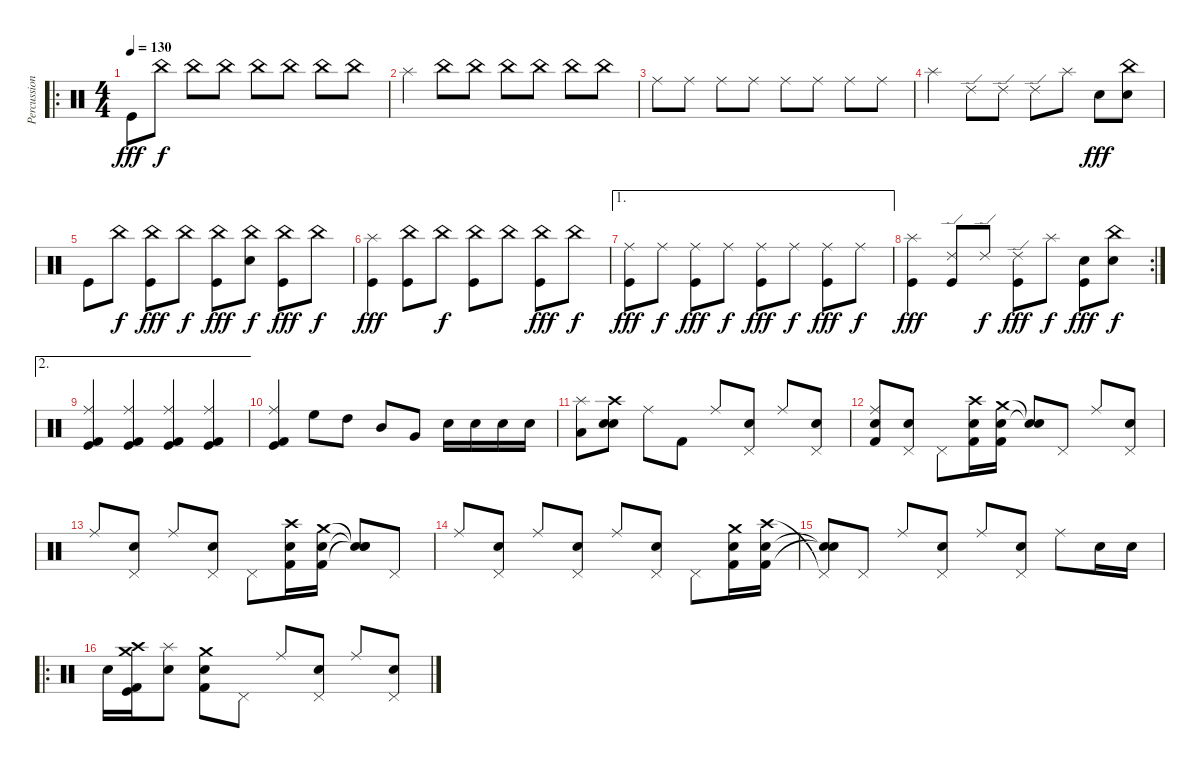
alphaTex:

\track ("Percussion" "Percussion") {instrument percussion}
\staff {score}
\articulation defaults
\ro
\ts (4 4)
\tempo 130
\clef neutral
\ks c "Kick (hit)".8{dy fff volume 9} "China (hit)".8{dy f} "China (hit)".8 "China (hit)".8 "China (hit)".8 "China (hit)".8 "China (hit)".8 "China (hit)".8
|
"Splash (hit)".4 "China (hit)".8 "China (hit)".8 "China (hit)".8 "China (hit)".8 "China (hit)".8 "China (hit)".8 |
"Ride (middle)".8 "Ride (middle)".8 "Ride (middle)".8 "Ride (middle)".8 "Ride (middle)".8 "Ride (middle)".8 "Ride (middle)".8 "Ride (middle)".8 |
"Splash (hit)".4 "Ride (edge) 2".8 "Ride (edge) 2".8 "Ride (edge) 2".8 "Splash (hit)".8 "Snare (hit) 2".8{dy fff} ("China (hit)" "Electric Snare (hit)").8 |
"Kick (hit)".8 "China (hit)".8{dy f} ("Kick (hit)" "China (hit)").8{dy fff} "China (hit)".8{dy f} ("Kick (hit)" "China (hit)").8{dy fff} ("Snare (hit)" "China (hit)").8{dy f} ("Kick (hit)" "China (hit)").8{dy fff} "China (hit)".8{dy f} |
("Kick (hit)" "Splash (hit)").4{dy fff} ("Kick (hit)" "China (hit)").8 "China (hit)".8{dy f} ("Kick (hit)" "China (hit)").8 "China (hit)".8 ("Kick (hit)" "China (hit)").8{dy fff} "China (hit)".8{dy f} |
\ae 1
("Kick (hit)" "Ride (middle)").8{dy fff} "Ride (middle)".8{dy f} ("Kick (hit)" "Ride (middle)").8{dy fff} "Ride (middle)".8{dy f} ("Kick (hit)" "Ride (middle)").8{dy fff} "Ride (middle)".8{dy f} ("Kick (hit)" "Ride (middle)").8{dy fff} "Ride (middle)".8{dy f} |
\rc 2
("Kick (hit)" "Splash (hit)").4{dy fff} ("Kick (hit)" "Ride (edge) 2").8 "Ride (edge) 2".8{dy f} ("Kick (hit)" "Ride (edge) 2").8{dy fff} "Splash (hit)".8{dy f} ("Kick (hit)" "Snare (hit) 2").8{dy fff} ("China (hit)" "Electric Snare (hit)").8{dy f} |
\ae 2
("Ride (middle)" "Kick (hit) 2" "Kick (hit)").4{volume 16} ("Ride (middle)" "Kick (hit) 2" "Kick (hit)").4 ("Ride (middle)" "Kick (hit) 2" "Kick (hit)").4 ("Ride (middle)" "Kick (hit) 2" "Kick (hit)").4 |
("Ride (middle)" "Kick (hit) 2" "Kick (hit)").4 "High Floor Tom (hit)".8 "High Tom (hit)".8 "Mid Tom (hit)".8 "Very Low Tom (hit)".8 "Electric Snare (hit)".16 "Electric Snare (hit)".16 "Electric Snare (hit)".16 "Snare (hit) 2".16 |
("Splash (hit)" "Low Tom (hit)").8 ("Electric Snare (hit)" "Crash high (hit)" "Electric Snare (hit)").8 "Ride (middle)".8 "Kick (hit) 2".8 "Ride (middle)".8 ("Pedal Hi-Hat (hit)" "Electric Snare (hit)").8 "Ride (middle)".8 ("Pedal Hi-Hat (hit)" "Electric Snare (hit)").8 |
("Ride (middle)" "Kick (hit) 2" "Snare (hit) 2").8 ("Pedal Hi-Hat (hit)" "Electric Snare (hit)").8 "Pedal Hi-Hat (hit)".8 ("Crash high (hit)" "Electric Snare (hit)" "Kick (hit) 2").16 ("Crash medium (hit)" "Electric Snare (hit)" "Kick (hit) 2").16 ("Snare (hit)"{t} "Snare (hit)"{t}).8 "Pedal Hi-Hat (hit)".8 "Ride (middle)".8 ("Pedal Hi-Hat (hit)" "Electric Snare (hit)").8 |
"Ride (middle)".8 ("Pedal Hi-Hat (hit)" "Electric Snare (hit)").8 "Ride (middle)".8 ("Pedal Hi-Hat (hit)" "Electric Snare (hit)").8 "Pedal Hi-Hat (hit)".8 ("Crash high (hit)" "Electric Snare (hit)" "Kick (hit) 2").16 ("Crash medium (hit)" "Electric Snare (hit)" "Kick (hit) 2").16 ("Snare (hit)"{t} "Snare (hit)"{t} "Snare (hit)"{t}).8 "Pedal Hi-Hat (hit)".8 |
"Ride (middle)".8 ("Pedal Hi-Hat (hit)" "Electric Snare (hit)").8 "Ride (middle)".8 ("Pedal Hi-Hat (hit)" "Electric Snare (hit)").8 "Ride (middle)".8 ("Pedal Hi-Hat (hit)" "Electric Snare (hit)").8 "Pedal Hi-Hat (hit)".8 ("Crash medium (hit)" "Electric Snare (hit)" "Kick (hit) 2").16 ("Crash high (hit)" "Electric Snare (hit)" "Kick (hit) 2").16 |
("Pedal Hi-Hat (hit)"{t} "Snare (hit)"{t} "Snare (hit)"{t}).8 "Pedal Hi-Hat (hit)".8 "Ride (middle)".8 ("Pedal Hi-Hat (hit)" "Electric Snare (hit)").8 "Ride (middle)".8 ("Pedal Hi-Hat (hit)" "Electric Snare (hit)").8 "Ride (middle)".8 "Electric Snare (hit)".16 "Electric Snare (hit)".16 |
\ro "Electric Snare (hit)".16
("Crash high (hit)" "Crash medium (hit)" "Kick (hit) 2" "Kick (hit)").16 ("Splash (hit)" "Snare (hit) 2").8 ("Crash medium (hit)" "Electric Snare (hit)" "Kick (hit) 2").8 "Pedal Hi-Hat (hit)".8 "Ride (middle)".8 ("Pedal Hi-Hat (hit)" "Electric Snare (hit)").8 "Ride (middle)".8 ("Pedal Hi-Hat (hit)" "Electric Snare (hit)").8
